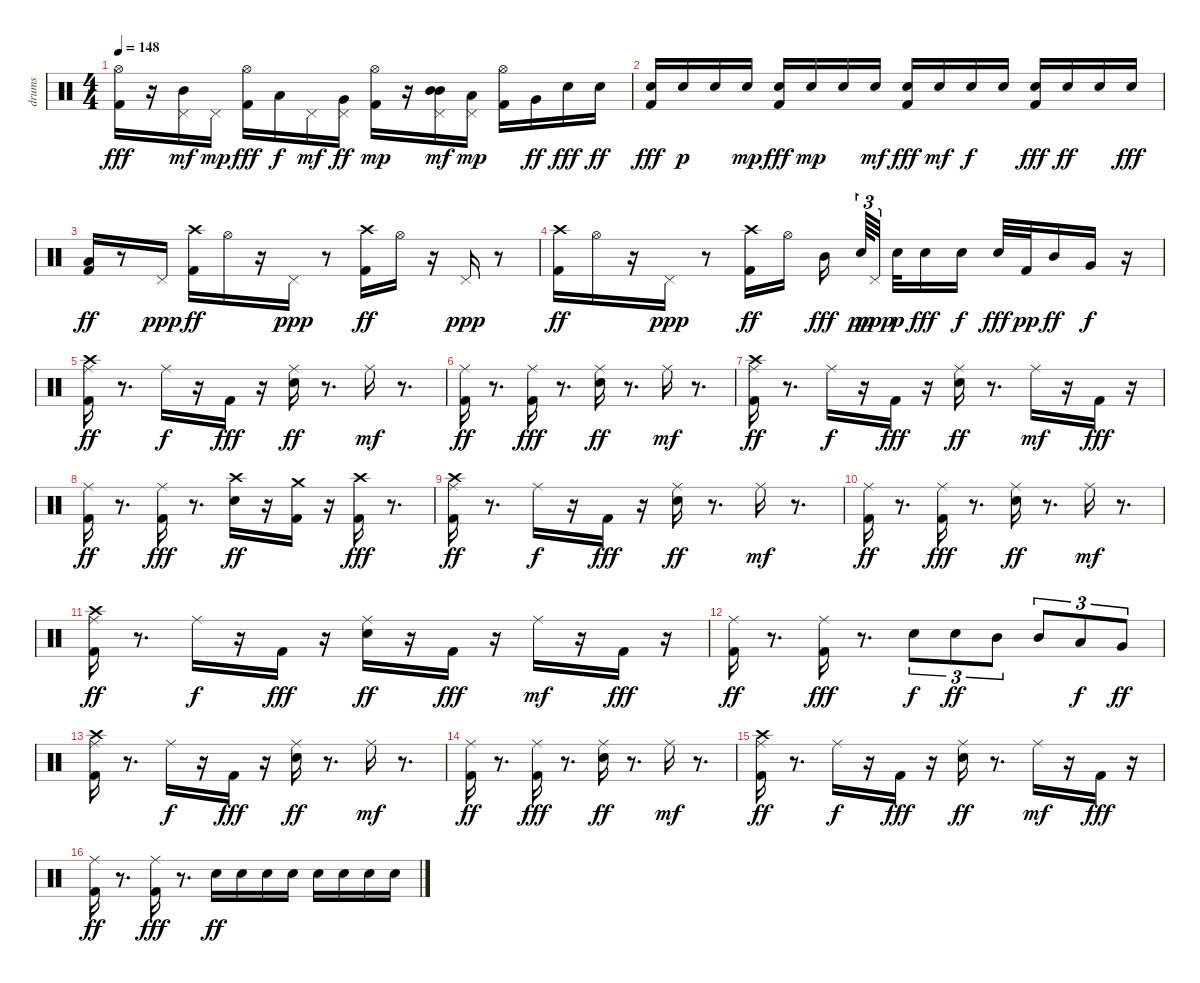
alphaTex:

\track ("drums" "drums") {instrument percussion}
\staff {score}
\articulation defaults
\ts (4 4)
\tempo 148
\clef neutral
\ks c
("Hi-Hat (open)" "Kick (hit) 2").16{dy fff} r.16 ("Pedal Hi-Hat (hit)" "Mid Tom (hit)").16{dy mf} "Pedal Hi-Hat (hit)".16{dy mp} ("Hi-Hat (open)" "Kick (hit) 2").16{dy fff} "Low Tom (hit)".16{dy f} "Pedal Hi-Hat (hit)".16{dy mf} ("Pedal Hi-Hat (hit)" "Very Low Tom (hit)").16{dy ff} ("Kick (hit) 2" "Hi-Hat (open)").16{dy mp} r.16 ("Pedal Hi-Hat (hit)" "Mid Tom (hit)" "Mid Tom (hit)").16{dy mf} ("Pedal Hi-Hat (hit)" "Low Tom (hit)").16{dy mp} ("Kick (hit) 2" "Hi-Hat (open)").16 "Very Low Tom (hit)".16{dy ff} "Electric Snare (hit)".16{dy fff} "Electric Snare (hit)".16{dy ff} |
("Snare (hit) 2" "Kick (hit) 2").16{dy fff} "Snare (hit) 2".16{dy p} "Snare (hit) 2".16 "Snare (hit) 2".16{dy mp} ("Snare (hit) 2" "Kick (hit) 2").16{dy fff} "Snare (hit) 2".16{dy mp} "Snare (hit) 2".16 "Snare (hit) 2".16{dy mf} ("Snare (hit) 2" "Kick (hit) 2").16{dy fff} "Snare (hit) 2".16{dy mf} "Snare (hit) 2".16{dy f} "Snare (hit) 2".16 ("Snare (hit) 2" "Kick (hit) 2").16{dy fff} "Snare (hit) 2".16{dy ff} "Snare (hit) 2".16 "Snare (hit) 2".16{dy fff} |
("Low Floor Tom (hit)" "Kick (hit) 2").16{dy ff} r.8 "Pedal Hi-Hat (hit)".16{dy ppp} ("Crash high (hit)" "Kick (hit) 2").16{dy ff} "Hi-Hat (open)".16 r.16 "Pedal Hi-Hat (hit)".16{dy ppp} r.8 ("Crash high (hit)" "Kick (hit) 2").16{dy ff} "Hi-Hat (open)".16 r.16 "Pedal Hi-Hat (hit)".16{dy ppp} r.8 |
("Crash high (hit)" "Kick (hit) 2").16{dy ff} "Hi-Hat (open)".16 r.16 "Pedal Hi-Hat (hit)".16{dy ppp} r.8 ("Crash high (hit)" "Kick (hit) 2").16{dy ff} "Hi-Hat (open)".16 "Mid Tom (hit)".16{dy fff beam splitsecondary} "Snare (hit) 2".64{tu (3 2) dy pp} "Pedal Hi-Hat (hit)".32{tu (3 2) dy ppp beam splitsecondary} "Snare (hit) 2".32{dy p} "Snare (hit) 2".16{dy fff} "Electric Snare (hit)".16{dy f} "Electric Snare (hit)".32{dy fff} "Kick (hit) 2".32{dy pp} "Mid Tom (hit)".16{dy ff} "Very Low Tom (hit)".16{dy f} r.16 |
("Crash high (hit)" "Kick (hit) 2" "Ride (middle)").16{dy ff} r.8{d} "Ride (middle)".16{dy f} r.16 "Kick (hit) 2".16{dy fff} r.16 ("Electric Snare (hit)" "Ride (middle)").16{dy ff} r.8{d} "Ride (middle)".16{dy mf} r.8{d} |
("Kick (hit) 2" "Ride (middle)").16{dy ff} r.8{d} ("Kick (hit) 2" "Ride (middle)").16{dy fff} r.8{d} ("Electric Snare (hit)" "Ride (middle)").16{dy ff} r.8{d} "Ride (middle)".16{dy mf} r.8{d} |
("Crash high (hit)" "Kick (hit) 2" "Ride (middle)").16{dy ff} r.8{d} "Ride (middle)".16{dy f} r.16 "Kick (hit) 2".16{dy fff} r.16 ("Electric Snare (hit)" "Ride (middle)").16{dy ff} r.8{d} "Ride (middle)".16{dy mf} r.16 "Kick (hit) 2".16{dy fff} r.16 |
("Kick (hit) 2" "Ride (middle)").16{dy ff} r.8{d} ("Kick (hit) 2" "Ride (middle)").16{dy fff} r.8{d} ("Crash high (hit)" "Electric Snare (hit)").16{dy ff} r.16 ("Kick (hit) 2" "Crash medium (hit)").16 r.16 ("Crash high (hit)" "Kick (hit) 2").16{dy fff} r.8{d} |
("Crash high (hit)" "Kick (hit) 2" "Ride (middle)").16{dy ff} r.8{d} "Ride (middle)".16{dy f} r.16 "Kick (hit) 2".16{dy fff} r.16 ("Electric Snare (hit)" "Ride (middle)").16{dy ff} r.8{d} "Ride (middle)".16{dy mf} r.8{d} |
("Kick (hit) 2" "Ride (middle)").16{dy ff} r.8{d} ("Kick (hit) 2" "Ride (middle)").16{dy fff} r.8{d} ("Electric Snare (hit)" "Ride (middle)").16{dy ff} r.8{d} "Ride (middle)".16{dy mf} r.8{d} |
("Crash high (hit)" "Kick (hit) 2" "Ride (middle)").16{dy ff} r.8{d} "Ride (middle)".16{dy f} r.16 "Kick (hit) 2".16{dy fff} r.16 ("Electric Snare (hit)" "Ride (middle)").16{dy ff} r.16 "Kick (hit) 2".16{dy fff} r.16 "Ride (middle)".16{dy mf} r.16 "Kick (hit) 2".16{dy fff} r.16 |
("Kick (hit) 2" "Ride (middle)").16{dy ff} r.8{d} ("Kick (hit) 2" "Ride (middle)").16{dy fff} r.8{d} "Electric Snare (hit)".8{tu (3 2) dy f} "Electric Snare (hit)".8{tu (3 2) dy ff} "Mid Tom (hit)".8{tu (3 2)} "Mid Tom (hit)".8{tu (3 2)} "Low Tom (hit)".8{tu (3 2) dy f} "Very Low Tom (hit)".8{tu (3 2) dy ff} |
("Crash high (hit)" "Kick (hit) 2" "Ride (middle)").16 r.8{d} "Ride (middle)".16{dy f} r.16 "Kick (hit) 2".16{dy fff} r.16 ("Electric Snare (hit)" "Ride (middle)").16{dy ff} r.8{d} "Ride (middle)".16{dy mf} r.8{d} |
("Kick (hit) 2" "Ride (middle)").16{dy ff} r.8{d} ("Kick (hit) 2" "Ride (middle)").16{dy fff} r.8{d} ("Electric Snare (hit)" "Ride (middle)").16{dy ff} r.8{d} "Ride (middle)".16{dy mf} r.8{d} |
("Crash high (hit)" "Kick (hit) 2" "Ride (middle)").16{dy ff} r.8{d} "Ride (middle)".16{dy f} r.16 "Kick (hit) 2".16{dy fff} r.16 ("Electric Snare (hit)" "Ride (middle)").16{dy ff} r.8{d} "Ride (middle)".16{dy mf} r.16 "Kick (hit) 2".16{dy fff} r.16 |
("Kick (hit) 2" "Ride (middle)").16{dy ff} r.8{d} ("Kick (hit) 2" "Ride (middle)").16{dy fff} r.8{d} "Electric Snare (hit)".16{dy ff} "Electric Snare (hit)".16 "Electric Snare (hit)".16 "Electric Snare (hit)".16 "Electric Snare (hit)".16 "Electric Snare (hit)".16 "Electric Snare (hit)".16 "Electric Snare (hit)".16
